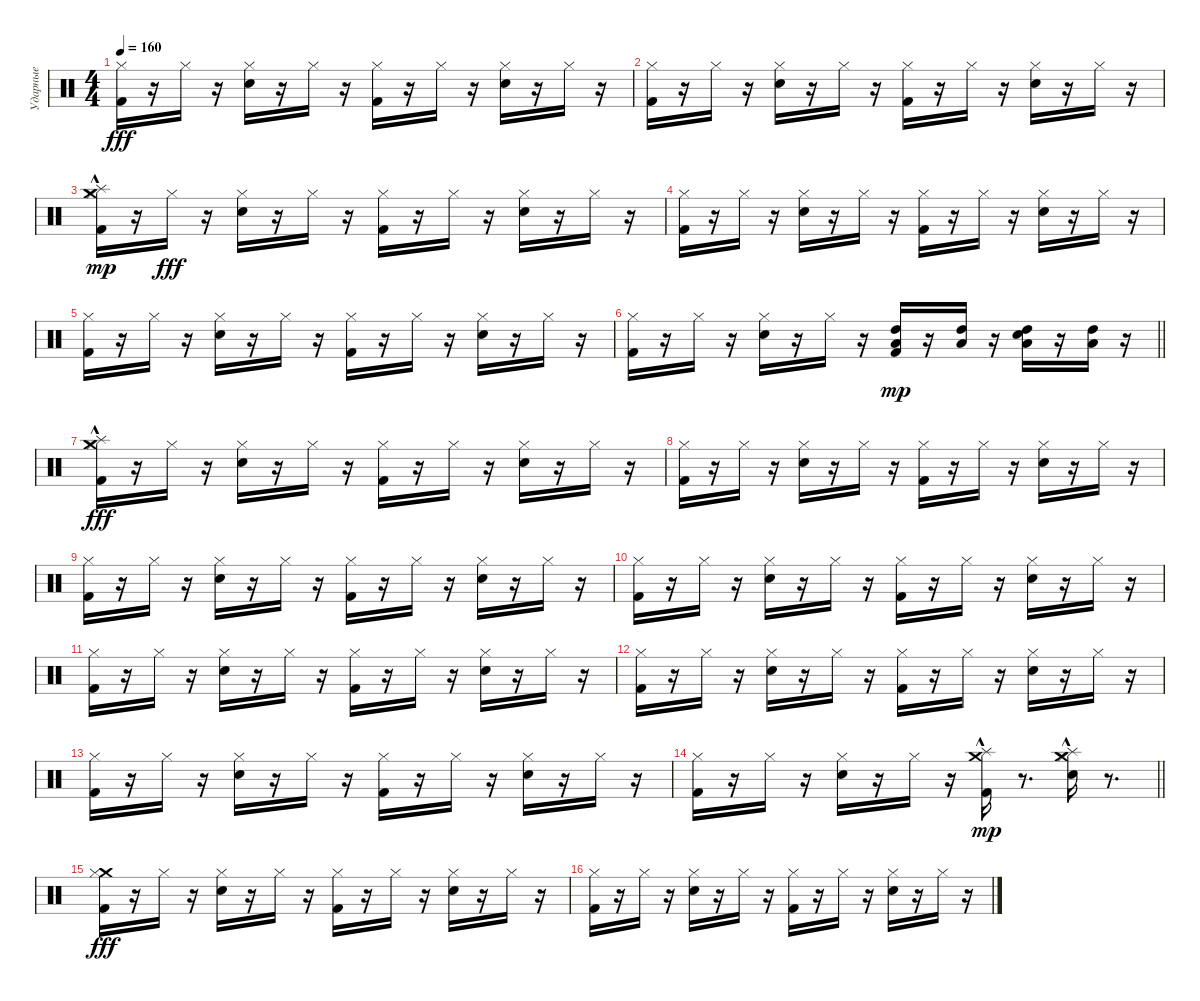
\track ("Ударные" "Ударные") {instrument percussion}
\staff {score}
\articulation defaults
\ts (4 4)
\tempo 160
\clef neutral
\ks c
("Hi-Hat (closed)" "Kick (hit) 2").16{dy fff} r.16 "Hi-Hat (closed)".16 r.16 ("Hi-Hat (closed)" "Electric Snare (hit)").16 r.16 "Hi-Hat (closed)".16 r.16 ("Hi-Hat (closed)" "Kick (hit) 2").16 r.16 "Hi-Hat (closed)".16 r.16 ("Hi-Hat (closed)" "Electric Snare (hit)").16 r.16 "Hi-Hat (closed)".16 r.16 |
("Hi-Hat (closed)" "Kick (hit) 2").16 r.16 "Hi-Hat (closed)".16 r.16 ("Hi-Hat (closed)" "Electric Snare (hit)").16 r.16 "Hi-Hat (closed)".16 r.16 ("Hi-Hat (closed)" "Kick (hit) 2").16 r.16 "Hi-Hat (closed)".16 r.16 ("Hi-Hat (closed)" "Electric Snare (hit)").16 r.16 "Hi-Hat (closed)".16 r.16 |
("Hi-Hat (closed)" "Kick (hit) 2" "Crash medium (hit)"{hac} "Splash (hit)").16{dy mp} r.16 "Hi-Hat (closed)".16{dy fff} r.16 ("Hi-Hat (closed)" "Electric Snare (hit)").16 r.16 "Hi-Hat (closed)".16 r.16 ("Hi-Hat (closed)" "Kick (hit) 2").16 r.16 "Hi-Hat (closed)".16 r.16 ("Hi-Hat (closed)" "Electric Snare (hit)").16 r.16 "Hi-Hat (closed)".16 r.16 |
("Hi-Hat (closed)" "Kick (hit) 2").16 r.16 "Hi-Hat (closed)".16 r.16 ("Hi-Hat (closed)" "Electric Snare (hit)").16 r.16 "Hi-Hat (closed)".16 r.16 ("Hi-Hat (closed)" "Kick (hit) 2").16 r.16 "Hi-Hat (closed)".16 r.16 ("Hi-Hat (closed)" "Electric Snare (hit)").16 r.16 "Hi-Hat (closed)".16 r.16 |
("Hi-Hat (closed)" "Kick (hit) 2").16 r.16 "Hi-Hat (closed)".16 r.16 ("Hi-Hat (closed)" "Electric Snare (hit)").16 r.16 "Hi-Hat (closed)".16 r.16 ("Hi-Hat (closed)" "Kick (hit) 2").16 r.16 "Hi-Hat (closed)".16 r.16 ("Hi-Hat (closed)" "Electric Snare (hit)").16 r.16 "Hi-Hat (closed)".16 r.16 |
\barLineRight lightlight
("Hi-Hat (closed)" "Kick (hit) 2").16 r.16 "Hi-Hat (closed)".16 r.16 ("Hi-Hat (closed)" "Electric Snare (hit)").16 r.16 "Hi-Hat (closed)".16 r.16 ("Kick (hit) 2" "High Tom (hit)" "Low Tom (hit)").16{dy mp} r.16 ("High Tom (hit)" "Low Tom (hit)").16 r.16 ("Electric Snare (hit)" "High Tom (hit)" "Low Tom (hit)").16 r.16 ("High Tom (hit)" "Low Tom (hit)").16 r.16 |
("Crash medium (hit)"{hac} "Splash (hit)" "Hi-Hat (closed)" "Kick (hit) 2").16{dy fff} r.16 "Hi-Hat (closed)".16 r.16 ("Hi-Hat (closed)" "Electric Snare (hit)").16 r.16 "Hi-Hat (closed)".16 r.16 ("Hi-Hat (closed)" "Kick (hit) 2").16 r.16 "Hi-Hat (closed)".16 r.16 ("Hi-Hat (closed)" "Electric Snare (hit)").16 r.16 "Hi-Hat (closed)".16 r.16 |
("Hi-Hat (closed)" "Kick (hit) 2").16 r.16 "Hi-Hat (closed)".16 r.16 ("Hi-Hat (closed)" "Electric Snare (hit)").16 r.16 "Hi-Hat (closed)".16 r.16 ("Hi-Hat (closed)" "Kick (hit) 2").16 r.16 "Hi-Hat (closed)".16 r.16 ("Hi-Hat (closed)" "Electric Snare (hit)").16 r.16 "Hi-Hat (closed)".16 r.16 |
("Hi-Hat (closed)" "Kick (hit) 2").16 r.16 "Hi-Hat (closed)".16 r.16 ("Hi-Hat (closed)" "Electric Snare (hit)").16 r.16 "Hi-Hat (closed)".16 r.16 ("Hi-Hat (closed)" "Kick (hit) 2").16 r.16 "Hi-Hat (closed)".16 r.16 ("Hi-Hat (closed)" "Electric Snare (hit)").16 r.16 "Hi-Hat (closed)".16 r.16 |
("Hi-Hat (closed)" "Kick (hit) 2").16 r.16 "Hi-Hat (closed)".16 r.16 ("Hi-Hat (closed)" "Electric Snare (hit)").16 r.16 "Hi-Hat (closed)".16 r.16 ("Hi-Hat (closed)" "Kick (hit) 2").16 r.16 "Hi-Hat (closed)".16 r.16 ("Hi-Hat (closed)" "Electric Snare (hit)").16 r.16 "Hi-Hat (closed)".16 r.16 |
("Hi-Hat (closed)" "Kick (hit) 2").16 r.16 "Hi-Hat (closed)".16 r.16 ("Hi-Hat (closed)" "Electric Snare (hit)").16 r.16 "Hi-Hat (closed)".16 r.16 ("Hi-Hat (closed)" "Kick (hit) 2").16 r.16 "Hi-Hat (closed)".16 r.16 ("Hi-Hat (closed)" "Electric Snare (hit)").16 r.16 "Hi-Hat (closed)".16 r.16 |
("Hi-Hat (closed)" "Kick (hit) 2").16 r.16 "Hi-Hat (closed)".16 r.16 ("Hi-Hat (closed)" "Electric Snare (hit)").16 r.16 "Hi-Hat (closed)".16 r.16 ("Hi-Hat (closed)" "Kick (hit) 2").16 r.16 "Hi-Hat (closed)".16 r.16 ("Hi-Hat (closed)" "Electric Snare (hit)").16 r.16 "Hi-Hat (closed)".16 r.16 |
("Hi-Hat (closed)" "Kick (hit) 2").16 r.16 "Hi-Hat (closed)".16 r.16 ("Hi-Hat (closed)" "Electric Snare (hit)").16 r.16 "Hi-Hat (closed)".16 r.16 ("Hi-Hat (closed)" "Kick (hit) 2").16 r.16 "Hi-Hat (closed)".16 r.16 ("Hi-Hat (closed)" "Electric Snare (hit)").16 r.16 "Hi-Hat (closed)".16 r.16 |
\barLineRight lightlight
("Hi-Hat (closed)" "Kick (hit) 2").16 r.16 "Hi-Hat (closed)".16 r.16 ("Hi-Hat (closed)" "Electric Snare (hit)").16 r.16 "Hi-Hat (closed)".16 r.16 ("Kick (hit) 2" "Crash medium (hit)"{hac} "Splash (hit)").16{dy mp} r.8{d} ("Hi-Hat (closed)" "Electric Snare (hit)" "Crash medium (hit)"{hac} "Splash (hit)").16 r.8{d} |
("Crash medium (hit)" "Hi-Hat (closed)" "Kick (hit) 2").16{dy fff} r.16 "Hi-Hat (closed)".16 r.16 ("Hi-Hat (closed)" "Electric Snare (hit)").16 r.16 "Hi-Hat (closed)".16 r.16 ("Hi-Hat (closed)" "Kick (hit) 2").16 r.16 "Hi-Hat (closed)".16 r.16 ("Hi-Hat (closed)" "Electric Snare (hit)").16 r.16 "Hi-Hat (closed)".16 r.16 |
("Hi-Hat (closed)" "Kick (hit) 2").16 r.16 "Hi-Hat (closed)".16 r.16 ("Hi-Hat (closed)" "Electric Snare (hit)").16 r.16 "Hi-Hat (closed)".16 r.16 ("Hi-Hat (closed)" "Kick (hit) 2").16 r.16 "Hi-Hat (closed)".16 r.16 ("Hi-Hat (closed)" "Electric Snare (hit)").16 r.16 "Hi-Hat (closed)".16 r.16
